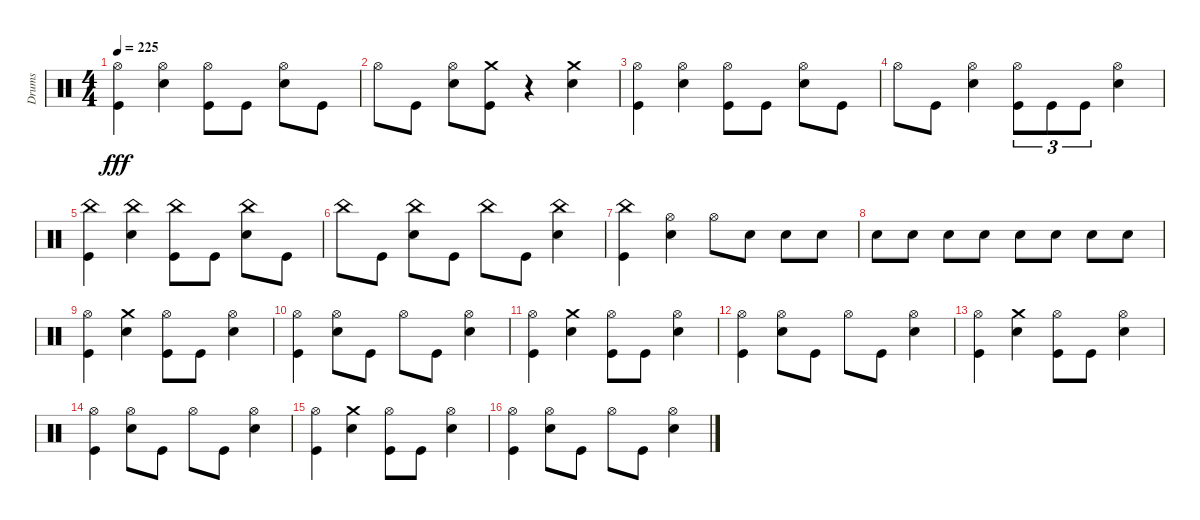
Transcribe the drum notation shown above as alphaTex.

\track ("Drums" "Drums") {instrument percussion}
\staff {score}
\articulation defaults
\ts (4 4)
\tempo 225
\clef neutral
\ks c
("Kick (hit)" "Hi-Hat (open)").4{dy fff} ("Snare (hit) 2" "Hi-Hat (open)").4 ("Kick (hit)" "Hi-Hat (open)").8 "Kick (hit)".8 ("Snare (hit) 2" "Hi-Hat (open)").8 "Kick (hit)".8 |
"Hi-Hat (open)".8 "Kick (hit)".8 ("Snare (hit) 2" "Hi-Hat (open)").8 ("Crash medium (hit)" "Kick (hit)").8 r.4 ("Snare (hit) 2" "Crash medium (hit)").4 |
("Kick (hit)" "Hi-Hat (open)").4 ("Snare (hit) 2" "Hi-Hat (open)").4 ("Kick (hit)" "Hi-Hat (open)").8 "Kick (hit)".8 ("Snare (hit) 2" "Hi-Hat (open)").8 "Kick (hit)".8 |
"Hi-Hat (open)".8 "Kick (hit)".8 ("Snare (hit) 2" "Hi-Hat (open)").4 ("Kick (hit)" "Hi-Hat (open)").8{tu (3 2)} "Kick (hit)".8{tu (3 2)} "Kick (hit)".8{tu (3 2)} ("Hi-Hat (open)" "Snare (hit) 2").4 |
("China (hit)" "Kick (hit)").4 ("China (hit)" "Snare (hit) 2").4 ("China (hit)" "Kick (hit)").8 "Kick (hit)".8 ("China (hit)" "Snare (hit) 2").8 "Kick (hit)".8 |
"China (hit)".8 "Kick (hit)".8 ("China (hit)" "Snare (hit) 2").8 "Kick (hit)".8 "China (hit)".8 "Kick (hit)".8 ("China (hit)" "Snare (hit) 2").4 |
("China (hit)" "Kick (hit)").4 ("Snare (hit) 2" "Hi-Hat (open)").4 "Hi-Hat (open)".8 "Snare (hit) 2".8 "Snare (hit) 2".8 "Snare (hit) 2".8 |
"Snare (hit) 2".8 "Snare (hit) 2".8 "Snare (hit) 2".8 "Snare (hit) 2".8 "Snare (hit) 2".8 "Snare (hit) 2".8 "Snare (hit) 2".8 "Snare (hit) 2".8 |
("Kick (hit)" "Hi-Hat (open)").4 ("Snare (hit) 2" "Crash medium (hit)").4 ("Kick (hit)" "Hi-Hat (open)").8 "Kick (hit)".8 ("Snare (hit) 2" "Hi-Hat (open)").4 |
("Kick (hit)" "Hi-Hat (open)").4 ("Hi-Hat (open)" "Snare (hit) 2").8 "Kick (hit)".8 "Hi-Hat (open)".8 "Kick (hit)".8 ("Snare (hit) 2" "Hi-Hat (open)").4 |
("Kick (hit)" "Hi-Hat (open)").4 ("Snare (hit) 2" "Crash medium (hit)").4 ("Kick (hit)" "Hi-Hat (open)").8 "Kick (hit)".8 ("Snare (hit) 2" "Hi-Hat (open)").4 |
("Kick (hit)" "Hi-Hat (open)").4 ("Snare (hit) 2" "Hi-Hat (open)").8 "Kick (hit)".8 "Hi-Hat (open)".8 "Kick (hit)".8 ("Snare (hit) 2" "Hi-Hat (open)").4 |
("Kick (hit)" "Hi-Hat (open)").4 ("Crash medium (hit)" "Snare (hit) 2").4 ("Kick (hit)" "Hi-Hat (open)").8 "Kick (hit)".8 ("Snare (hit) 2" "Hi-Hat (open)").4 |
("Kick (hit)" "Hi-Hat (open)").4 ("Snare (hit) 2" "Hi-Hat (open)").8 "Kick (hit)".8 "Hi-Hat (open)".8 "Kick (hit)".8 ("Snare (hit) 2" "Hi-Hat (open)").4 |
("Kick (hit)" "Hi-Hat (open)").4 ("Snare (hit) 2" "Crash medium (hit)").4 ("Kick (hit)" "Hi-Hat (open)").8 "Kick (hit)".8 ("Snare (hit) 2" "Hi-Hat (open)").4 |
("Kick (hit)" "Hi-Hat (open)").4 ("Snare (hit) 2" "Hi-Hat (open)").8 "Kick (hit)".8 "Hi-Hat (open)".8 "Kick (hit)".8 ("Snare (hit) 2" "Hi-Hat (open)").4
